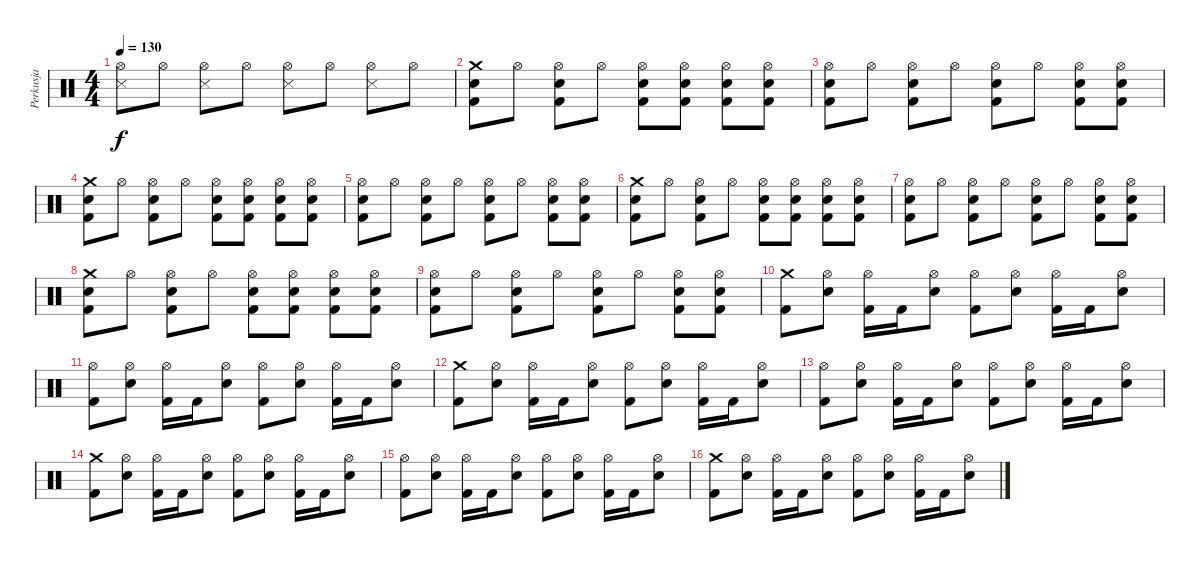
\track ("Perkusja" "Perkusja") {instrument percussion}
\staff {score}
\articulation defaults
\ts (4 4)
\tempo 130
\clef neutral
\ks c
("Hi-Hat (open)" "Snare (side stick) 3").8{dy f} "Hi-Hat (open)".8 ("Hi-Hat (open)" "Snare (side stick) 3").8 "Hi-Hat (open)".8 ("Hi-Hat (open)" "Snare (side stick) 3").8 "Hi-Hat (open)".8 ("Hi-Hat (open)" "Snare (side stick) 3").8 "Hi-Hat (open)".8 |
("Crash medium (hit)" "Electric Snare (hit)" "Kick (hit) 2").8 "Hi-Hat (open)".8 ("Hi-Hat (open)" "Electric Snare (hit)" "Kick (hit) 2").8 "Hi-Hat (open)".8 ("Hi-Hat (open)" "Electric Snare (hit)" "Kick (hit) 2").8 ("Hi-Hat (open)" "Electric Snare (hit)" "Kick (hit) 2").8 ("Hi-Hat (open)" "Electric Snare (hit)" "Kick (hit) 2").8 ("Hi-Hat (open)" "Electric Snare (hit)" "Kick (hit) 2").8 |
("Hi-Hat (open)" "Electric Snare (hit)" "Kick (hit) 2").8 "Hi-Hat (open)".8 ("Hi-Hat (open)" "Electric Snare (hit)" "Kick (hit) 2").8 "Hi-Hat (open)".8 ("Hi-Hat (open)" "Electric Snare (hit)" "Kick (hit) 2").8 "Hi-Hat (open)".8 ("Hi-Hat (open)" "Electric Snare (hit)" "Kick (hit) 2").8 ("Hi-Hat (open)" "Electric Snare (hit)" "Kick (hit) 2").8 |
("Crash medium (hit)" "Electric Snare (hit)" "Kick (hit) 2").8 "Hi-Hat (open)".8 ("Hi-Hat (open)" "Electric Snare (hit)" "Kick (hit) 2").8 "Hi-Hat (open)".8 ("Hi-Hat (open)" "Electric Snare (hit)" "Kick (hit) 2").8 ("Hi-Hat (open)" "Electric Snare (hit)" "Kick (hit) 2").8 ("Hi-Hat (open)" "Electric Snare (hit)" "Kick (hit) 2").8 ("Hi-Hat (open)" "Electric Snare (hit)" "Kick (hit) 2").8 |
("Hi-Hat (open)" "Electric Snare (hit)" "Kick (hit) 2").8 "Hi-Hat (open)".8 ("Hi-Hat (open)" "Electric Snare (hit)" "Kick (hit) 2").8 "Hi-Hat (open)".8 ("Hi-Hat (open)" "Electric Snare (hit)" "Kick (hit) 2").8 "Hi-Hat (open)".8 ("Hi-Hat (open)" "Electric Snare (hit)" "Kick (hit) 2").8 ("Hi-Hat (open)" "Electric Snare (hit)" "Kick (hit) 2").8 |
("Crash medium (hit)" "Electric Snare (hit)" "Kick (hit) 2").8 "Hi-Hat (open)".8 ("Hi-Hat (open)" "Electric Snare (hit)" "Kick (hit) 2").8 "Hi-Hat (open)".8 ("Hi-Hat (open)" "Electric Snare (hit)" "Kick (hit) 2").8 ("Hi-Hat (open)" "Electric Snare (hit)" "Kick (hit) 2").8 ("Hi-Hat (open)" "Electric Snare (hit)" "Kick (hit) 2").8 ("Hi-Hat (open)" "Electric Snare (hit)" "Kick (hit) 2").8 |
("Hi-Hat (open)" "Electric Snare (hit)" "Kick (hit) 2").8 "Hi-Hat (open)".8 ("Hi-Hat (open)" "Electric Snare (hit)" "Kick (hit) 2").8 "Hi-Hat (open)".8 ("Hi-Hat (open)" "Electric Snare (hit)" "Kick (hit) 2").8 "Hi-Hat (open)".8 ("Hi-Hat (open)" "Electric Snare (hit)" "Kick (hit) 2").8 ("Hi-Hat (open)" "Electric Snare (hit)" "Kick (hit) 2").8 |
("Crash medium (hit)" "Electric Snare (hit)" "Kick (hit) 2").8 "Hi-Hat (open)".8 ("Hi-Hat (open)" "Electric Snare (hit)" "Kick (hit) 2").8 "Hi-Hat (open)".8 ("Hi-Hat (open)" "Electric Snare (hit)" "Kick (hit) 2").8 ("Hi-Hat (open)" "Electric Snare (hit)" "Kick (hit) 2").8 ("Hi-Hat (open)" "Electric Snare (hit)" "Kick (hit) 2").8 ("Hi-Hat (open)" "Electric Snare (hit)" "Kick (hit) 2").8 |
("Hi-Hat (open)" "Electric Snare (hit)" "Kick (hit) 2").8 "Hi-Hat (open)".8 ("Hi-Hat (open)" "Electric Snare (hit)" "Kick (hit) 2").8 "Hi-Hat (open)".8 ("Hi-Hat (open)" "Electric Snare (hit)" "Kick (hit) 2").8 "Hi-Hat (open)".8 ("Hi-Hat (open)" "Electric Snare (hit)" "Kick (hit) 2").8 ("Hi-Hat (open)" "Electric Snare (hit)" "Kick (hit) 2").8 |
("Crash medium (hit)" "Kick (hit) 2").8 ("Hi-Hat (open)" "Electric Snare (hit)").8 ("Hi-Hat (open)" "Kick (hit) 2").16 "Kick (hit) 2".16 ("Hi-Hat (open)" "Electric Snare (hit)").8 ("Hi-Hat (open)" "Kick (hit) 2").8 ("Hi-Hat (open)" "Electric Snare (hit)").8 ("Hi-Hat (open)" "Kick (hit) 2").16 "Kick (hit) 2".16 ("Hi-Hat (open)" "Electric Snare (hit)").8 |
("Hi-Hat (open)" "Kick (hit) 2").8 ("Hi-Hat (open)" "Electric Snare (hit)").8 ("Hi-Hat (open)" "Kick (hit) 2").16 "Kick (hit) 2".16 ("Hi-Hat (open)" "Electric Snare (hit)").8 ("Hi-Hat (open)" "Kick (hit) 2").8 ("Hi-Hat (open)" "Electric Snare (hit)").8 ("Hi-Hat (open)" "Kick (hit) 2").16 "Kick (hit) 2".16 ("Hi-Hat (open)" "Electric Snare (hit)").8 |
("Crash medium (hit)" "Kick (hit) 2").8 ("Hi-Hat (open)" "Electric Snare (hit)").8 ("Hi-Hat (open)" "Kick (hit) 2").16 "Kick (hit) 2".16 ("Hi-Hat (open)" "Electric Snare (hit)").8 ("Hi-Hat (open)" "Kick (hit) 2").8 ("Hi-Hat (open)" "Electric Snare (hit)").8 ("Hi-Hat (open)" "Kick (hit) 2").16 "Kick (hit) 2".16 ("Hi-Hat (open)" "Electric Snare (hit)").8 |
("Hi-Hat (open)" "Kick (hit) 2").8 ("Hi-Hat (open)" "Electric Snare (hit)").8 ("Hi-Hat (open)" "Kick (hit) 2").16 "Kick (hit) 2".16 ("Hi-Hat (open)" "Electric Snare (hit)").8 ("Hi-Hat (open)" "Kick (hit) 2").8 ("Hi-Hat (open)" "Electric Snare (hit)").8 ("Hi-Hat (open)" "Kick (hit) 2").16 "Kick (hit) 2".16 ("Hi-Hat (open)" "Electric Snare (hit)").8 |
("Crash medium (hit)" "Kick (hit) 2").8 ("Hi-Hat (open)" "Electric Snare (hit)").8 ("Hi-Hat (open)" "Kick (hit) 2").16 "Kick (hit) 2".16 ("Hi-Hat (open)" "Electric Snare (hit)").8 ("Hi-Hat (open)" "Kick (hit) 2").8 ("Hi-Hat (open)" "Electric Snare (hit)").8 ("Hi-Hat (open)" "Kick (hit) 2").16 "Kick (hit) 2".16 ("Hi-Hat (open)" "Electric Snare (hit)").8 |
("Hi-Hat (open)" "Kick (hit) 2").8 ("Hi-Hat (open)" "Electric Snare (hit)").8 ("Hi-Hat (open)" "Kick (hit) 2").16 "Kick (hit) 2".16 ("Hi-Hat (open)" "Electric Snare (hit)").8 ("Hi-Hat (open)" "Kick (hit) 2").8 ("Hi-Hat (open)" "Electric Snare (hit)").8 ("Hi-Hat (open)" "Kick (hit) 2").16 "Kick (hit) 2".16 ("Hi-Hat (open)" "Electric Snare (hit)").8 |
("Crash medium (hit)" "Kick (hit) 2").8 ("Hi-Hat (open)" "Electric Snare (hit)").8 ("Hi-Hat (open)" "Kick (hit) 2").16 "Kick (hit) 2".16 ("Hi-Hat (open)" "Electric Snare (hit)").8 ("Hi-Hat (open)" "Kick (hit) 2").8 ("Hi-Hat (open)" "Electric Snare (hit)").8 ("Hi-Hat (open)" "Kick (hit) 2").16 "Kick (hit) 2".16 ("Hi-Hat (open)" "Electric Snare (hit)").8
